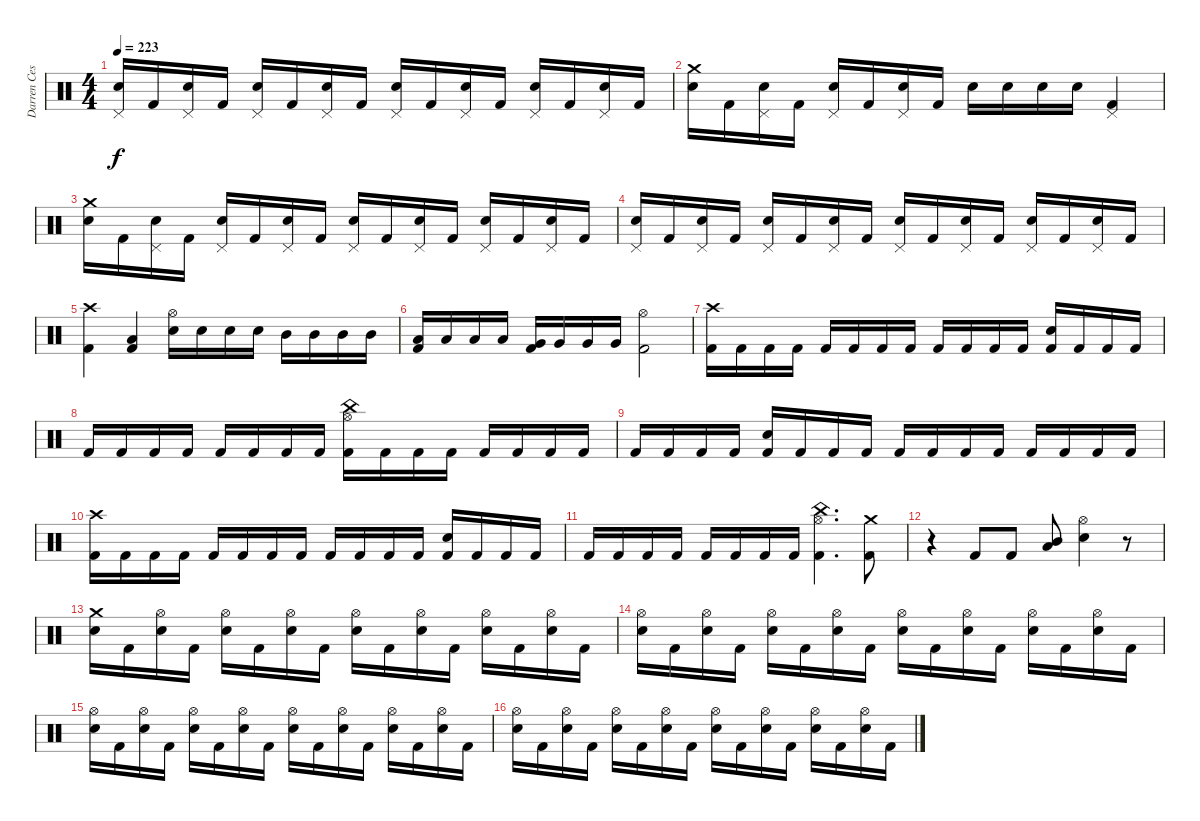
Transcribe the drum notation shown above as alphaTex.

\track ("Darren Cesca" "Darren Ces") {instrument percussion}
\staff {score}
\articulation defaults
\ts (4 4)
\tempo 223
\clef neutral
\ks c
("Pedal Hi-Hat (hit)" "Electric Snare (hit)").16{dy f} "Kick (hit) 2".16 ("Pedal Hi-Hat (hit)" "Electric Snare (hit)").16 "Kick (hit) 2".16 ("Pedal Hi-Hat (hit)" "Electric Snare (hit)").16 "Kick (hit) 2".16 ("Pedal Hi-Hat (hit)" "Electric Snare (hit)").16 "Kick (hit) 2".16 ("Pedal Hi-Hat (hit)" "Electric Snare (hit)").16 "Kick (hit) 2".16 ("Pedal Hi-Hat (hit)" "Electric Snare (hit)").16 "Kick (hit) 2".16 ("Pedal Hi-Hat (hit)" "Electric Snare (hit)").16 "Kick (hit) 2".16 ("Pedal Hi-Hat (hit)" "Electric Snare (hit)").16 "Kick (hit) 2".16 |
("Crash medium (hit)" "Electric Snare (hit)").16 "Kick (hit) 2".16 ("Pedal Hi-Hat (hit)" "Electric Snare (hit)").16 "Kick (hit) 2".16 ("Pedal Hi-Hat (hit)" "Electric Snare (hit)").16 "Kick (hit) 2".16 ("Pedal Hi-Hat (hit)" "Electric Snare (hit)").16 "Kick (hit) 2".16 "Electric Snare (hit)".16 "Electric Snare (hit)".16 "Electric Snare (hit)".16 "Electric Snare (hit)".16 ("Pedal Hi-Hat (hit)" "Kick (hit) 2").4 |
("Crash medium (hit)" "Electric Snare (hit)").16 "Kick (hit) 2".16 ("Pedal Hi-Hat (hit)" "Electric Snare (hit)").16 "Kick (hit) 2".16 ("Pedal Hi-Hat (hit)" "Electric Snare (hit)").16 "Kick (hit) 2".16 ("Pedal Hi-Hat (hit)" "Electric Snare (hit)").16 "Kick (hit) 2".16 ("Pedal Hi-Hat (hit)" "Electric Snare (hit)").16 "Kick (hit) 2".16 ("Pedal Hi-Hat (hit)" "Electric Snare (hit)").16 "Kick (hit) 2".16 ("Pedal Hi-Hat (hit)" "Electric Snare (hit)").16 "Kick (hit) 2".16 ("Pedal Hi-Hat (hit)" "Electric Snare (hit)").16 "Kick (hit) 2".16 |
("Pedal Hi-Hat (hit)" "Electric Snare (hit)").16 "Kick (hit) 2".16 ("Pedal Hi-Hat (hit)" "Electric Snare (hit)").16 "Kick (hit) 2".16 ("Pedal Hi-Hat (hit)" "Electric Snare (hit)").16 "Kick (hit) 2".16 ("Pedal Hi-Hat (hit)" "Electric Snare (hit)").16 "Kick (hit) 2".16 ("Pedal Hi-Hat (hit)" "Electric Snare (hit)").16 "Kick (hit) 2".16 ("Pedal Hi-Hat (hit)" "Electric Snare (hit)").16 "Kick (hit) 2".16 ("Pedal Hi-Hat (hit)" "Electric Snare (hit)").16 "Kick (hit) 2".16 ("Pedal Hi-Hat (hit)" "Electric Snare (hit)").16 "Kick (hit) 2".16 |
("Crash high (hit)" "Kick (hit) 2").4 ("Low Tom (hit)" "Kick (hit) 2").4 ("Hi-Hat (open)" "Electric Snare (hit)").16 "Electric Snare (hit)".16 "Electric Snare (hit)".16 "Electric Snare (hit)".16 "Mid Tom (hit)".16 "Mid Tom (hit)".16 "Mid Tom (hit)".16 "Mid Tom (hit)".16 |
("Low Tom (hit)" "Kick (hit) 2").16 "Low Tom (hit)".16 "Low Tom (hit)".16 "Low Tom (hit)".16 ("Very Low Tom (hit)" "Kick (hit) 2").16 "Very Low Tom (hit)".16 "Very Low Tom (hit)".16 "Very Low Tom (hit)".16 ("Hi-Hat (open)" "Kick (hit) 2").2 |
("Crash high (hit)" "Kick (hit) 2").16 "Kick (hit) 2".16 "Kick (hit) 2".16 "Kick (hit) 2".16 "Kick (hit) 2".16 "Kick (hit) 2".16 "Kick (hit) 2".16 "Kick (hit) 2".16 "Kick (hit) 2".16 "Kick (hit) 2".16 "Kick (hit) 2".16 "Kick (hit) 2".16 ("Electric Snare (hit)" "Kick (hit) 2").16 "Kick (hit) 2".16 "Kick (hit) 2".16 "Kick (hit) 2".16 |
"Kick (hit) 2".16 "Kick (hit) 2".16 "Kick (hit) 2".16 "Kick (hit) 2".16 "Kick (hit) 2".16 "Kick (hit) 2".16 "Kick (hit) 2".16 "Kick (hit) 2".16 ("China (hit)" "Hi-Hat (open)" "Kick (hit) 2").16 "Kick (hit) 2".16 "Kick (hit) 2".16 "Kick (hit) 2".16 "Kick (hit) 2".16 "Kick (hit) 2".16 "Kick (hit) 2".16 "Kick (hit) 2".16 |
"Kick (hit) 2".16 "Kick (hit) 2".16 "Kick (hit) 2".16 "Kick (hit) 2".16 ("Electric Snare (hit)" "Kick (hit) 2").16 "Kick (hit) 2".16 "Kick (hit) 2".16 "Kick (hit) 2".16 "Kick (hit) 2".16 "Kick (hit) 2".16 "Kick (hit) 2".16 "Kick (hit) 2".16 "Kick (hit) 2".16 "Kick (hit) 2".16 "Kick (hit) 2".16 "Kick (hit) 2".16 |
("Crash high (hit)" "Kick (hit) 2").16 "Kick (hit) 2".16 "Kick (hit) 2".16 "Kick (hit) 2".16 "Kick (hit) 2".16 "Kick (hit) 2".16 "Kick (hit) 2".16 "Kick (hit) 2".16 "Kick (hit) 2".16 "Kick (hit) 2".16 "Kick (hit) 2".16 "Kick (hit) 2".16 ("Electric Snare (hit)" "Kick (hit) 2").16 "Kick (hit) 2".16 "Kick (hit) 2".16 "Kick (hit) 2".16 |
"Kick (hit) 2".16 "Kick (hit) 2".16 "Kick (hit) 2".16 "Kick (hit) 2".16 "Kick (hit) 2".16 "Kick (hit) 2".16 "Kick (hit) 2".16 "Kick (hit) 2".16 ("China (hit)" "Hi-Hat (open)" "Kick (hit) 2").4{d} ("Crash medium (hit)" "Kick (hit) 2").8 |
r.4 "Kick (hit) 2".8 "Kick (hit) 2".8 ("Low Tom (hit)" "Mid Tom (hit)").8 ("Hi-Hat (open)" "Electric Snare (hit)").4 r.8 |
("Crash medium (hit)" "Electric Snare (hit)").16 "Kick (hit) 2".16 ("Hi-Hat (open)" "Electric Snare (hit)").16 "Kick (hit) 2".16 ("Hi-Hat (open)" "Electric Snare (hit)").16 "Kick (hit) 2".16 ("Hi-Hat (open)" "Electric Snare (hit)").16 "Kick (hit) 2".16 ("Hi-Hat (open)" "Electric Snare (hit)").16 "Kick (hit) 2".16 ("Hi-Hat (open)" "Electric Snare (hit)").16 "Kick (hit) 2".16 ("Hi-Hat (open)" "Electric Snare (hit)").16 "Kick (hit) 2".16 ("Hi-Hat (open)" "Electric Snare (hit)").16 "Kick (hit) 2".16 |
("Hi-Hat (open)" "Electric Snare (hit)").16 "Kick (hit) 2".16 ("Hi-Hat (open)" "Electric Snare (hit)").16 "Kick (hit) 2".16 ("Hi-Hat (open)" "Electric Snare (hit)").16 "Kick (hit) 2".16 ("Hi-Hat (open)" "Electric Snare (hit)").16 "Kick (hit) 2".16 ("Hi-Hat (open)" "Electric Snare (hit)").16 "Kick (hit) 2".16 ("Hi-Hat (open)" "Electric Snare (hit)").16 "Kick (hit) 2".16 ("Hi-Hat (open)" "Electric Snare (hit)").16 "Kick (hit) 2".16 ("Hi-Hat (open)" "Electric Snare (hit)").16 "Kick (hit) 2".16 |
("Hi-Hat (open)" "Electric Snare (hit)").16 "Kick (hit) 2".16 ("Hi-Hat (open)" "Electric Snare (hit)").16 "Kick (hit) 2".16 ("Hi-Hat (open)" "Electric Snare (hit)").16 "Kick (hit) 2".16 ("Hi-Hat (open)" "Electric Snare (hit)").16 "Kick (hit) 2".16 ("Hi-Hat (open)" "Electric Snare (hit)").16 "Kick (hit) 2".16 ("Hi-Hat (open)" "Electric Snare (hit)").16 "Kick (hit) 2".16 ("Hi-Hat (open)" "Electric Snare (hit)").16 "Kick (hit) 2".16 ("Hi-Hat (open)" "Electric Snare (hit)").16 "Kick (hit) 2".16 |
("Hi-Hat (open)" "Electric Snare (hit)").16 "Kick (hit) 2".16 ("Hi-Hat (open)" "Electric Snare (hit)").16 "Kick (hit) 2".16 ("Hi-Hat (open)" "Electric Snare (hit)").16 "Kick (hit) 2".16 ("Hi-Hat (open)" "Electric Snare (hit)").16 "Kick (hit) 2".16 ("Hi-Hat (open)" "Electric Snare (hit)").16 "Kick (hit) 2".16 ("Hi-Hat (open)" "Electric Snare (hit)").16 "Kick (hit) 2".16 ("Hi-Hat (open)" "Electric Snare (hit)").16 "Kick (hit) 2".16 ("Hi-Hat (open)" "Electric Snare (hit)").16 "Kick (hit) 2".16
